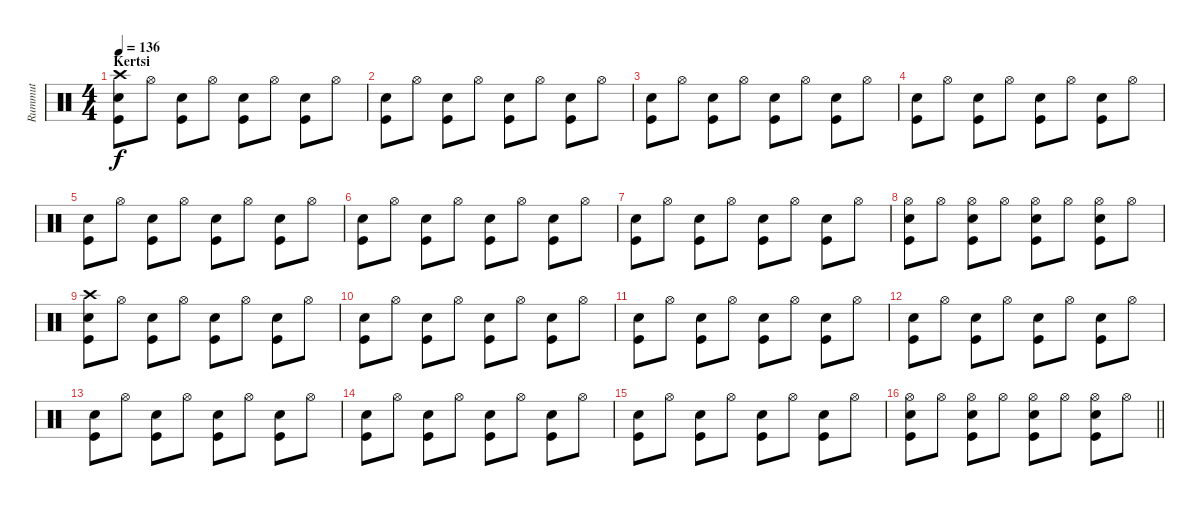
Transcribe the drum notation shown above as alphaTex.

\track ("Rummut" "Rummut") {instrument percussion}
\staff {score}
\articulation defaults
\ts (4 4)
\section ("" "Kertsi")
\tempo 136
\clef neutral
\ks c
("Crash high (hit)" "Electric Snare (hit)" "Kick (hit)").8{dy f} "Hi-Hat (open)".8 ("Electric Snare (hit)" "Kick (hit)").8 "Hi-Hat (open)".8 ("Electric Snare (hit)" "Kick (hit)").8 "Hi-Hat (open)".8 ("Electric Snare (hit)" "Kick (hit)").8 "Hi-Hat (open)".8 |
("Electric Snare (hit)" "Kick (hit)").8 "Hi-Hat (open)".8 ("Electric Snare (hit)" "Kick (hit)").8 "Hi-Hat (open)".8 ("Electric Snare (hit)" "Kick (hit)").8 "Hi-Hat (open)".8 ("Electric Snare (hit)" "Kick (hit)").8 "Hi-Hat (open)".8 |
("Electric Snare (hit)" "Kick (hit)").8 "Hi-Hat (open)".8 ("Electric Snare (hit)" "Kick (hit)").8 "Hi-Hat (open)".8 ("Electric Snare (hit)" "Kick (hit)").8 "Hi-Hat (open)".8 ("Electric Snare (hit)" "Kick (hit)").8 "Hi-Hat (open)".8 |
("Electric Snare (hit)" "Kick (hit)").8 "Hi-Hat (open)".8 ("Electric Snare (hit)" "Kick (hit)").8 "Hi-Hat (open)".8 ("Electric Snare (hit)" "Kick (hit)").8 "Hi-Hat (open)".8 ("Electric Snare (hit)" "Kick (hit)").8 "Hi-Hat (open)".8 |
("Electric Snare (hit)" "Kick (hit)").8 "Hi-Hat (open)".8 ("Electric Snare (hit)" "Kick (hit)").8 "Hi-Hat (open)".8 ("Electric Snare (hit)" "Kick (hit)").8 "Hi-Hat (open)".8 ("Electric Snare (hit)" "Kick (hit)").8 "Hi-Hat (open)".8 |
("Electric Snare (hit)" "Kick (hit)").8 "Hi-Hat (open)".8 ("Electric Snare (hit)" "Kick (hit)").8 "Hi-Hat (open)".8 ("Electric Snare (hit)" "Kick (hit)").8 "Hi-Hat (open)".8 ("Electric Snare (hit)" "Kick (hit)").8 "Hi-Hat (open)".8 |
("Electric Snare (hit)" "Kick (hit)").8 "Hi-Hat (open)".8 ("Electric Snare (hit)" "Kick (hit)").8 "Hi-Hat (open)".8 ("Electric Snare (hit)" "Kick (hit)").8 "Hi-Hat (open)".8 ("Electric Snare (hit)" "Kick (hit)").8 "Hi-Hat (open)".8 |
("Hi-Hat (open)" "Electric Snare (hit)" "Kick (hit)").8 "Hi-Hat (open)".8 ("Hi-Hat (open)" "Electric Snare (hit)" "Kick (hit)").8 "Hi-Hat (open)".8 ("Hi-Hat (open)" "Electric Snare (hit)" "Kick (hit)").8 "Hi-Hat (open)".8 ("Hi-Hat (open)" "Electric Snare (hit)" "Kick (hit)").8 "Hi-Hat (open)".8 |
("Crash high (hit)" "Electric Snare (hit)" "Kick (hit)").8 "Hi-Hat (open)".8 ("Electric Snare (hit)" "Kick (hit)").8 "Hi-Hat (open)".8 ("Electric Snare (hit)" "Kick (hit)").8 "Hi-Hat (open)".8 ("Electric Snare (hit)" "Kick (hit)").8 "Hi-Hat (open)".8 |
("Electric Snare (hit)" "Kick (hit)").8 "Hi-Hat (open)".8 ("Electric Snare (hit)" "Kick (hit)").8 "Hi-Hat (open)".8 ("Electric Snare (hit)" "Kick (hit)").8 "Hi-Hat (open)".8 ("Electric Snare (hit)" "Kick (hit)").8 "Hi-Hat (open)".8 |
("Electric Snare (hit)" "Kick (hit)").8 "Hi-Hat (open)".8 ("Electric Snare (hit)" "Kick (hit)").8 "Hi-Hat (open)".8 ("Electric Snare (hit)" "Kick (hit)").8 "Hi-Hat (open)".8 ("Electric Snare (hit)" "Kick (hit)").8 "Hi-Hat (open)".8 |
("Electric Snare (hit)" "Kick (hit)").8 "Hi-Hat (open)".8 ("Electric Snare (hit)" "Kick (hit)").8 "Hi-Hat (open)".8 ("Electric Snare (hit)" "Kick (hit)").8 "Hi-Hat (open)".8 ("Electric Snare (hit)" "Kick (hit)").8 "Hi-Hat (open)".8 |
("Electric Snare (hit)" "Kick (hit)").8 "Hi-Hat (open)".8 ("Electric Snare (hit)" "Kick (hit)").8 "Hi-Hat (open)".8 ("Electric Snare (hit)" "Kick (hit)").8 "Hi-Hat (open)".8 ("Electric Snare (hit)" "Kick (hit)").8 "Hi-Hat (open)".8 |
("Electric Snare (hit)" "Kick (hit)").8 "Hi-Hat (open)".8 ("Electric Snare (hit)" "Kick (hit)").8 "Hi-Hat (open)".8 ("Electric Snare (hit)" "Kick (hit)").8 "Hi-Hat (open)".8 ("Electric Snare (hit)" "Kick (hit)").8 "Hi-Hat (open)".8 |
("Electric Snare (hit)" "Kick (hit)").8 "Hi-Hat (open)".8 ("Electric Snare (hit)" "Kick (hit)").8 "Hi-Hat (open)".8 ("Electric Snare (hit)" "Kick (hit)").8 "Hi-Hat (open)".8 ("Electric Snare (hit)" "Kick (hit)").8 "Hi-Hat (open)".8 |
\barLineRight lightlight
("Hi-Hat (open)" "Electric Snare (hit)" "Kick (hit)").8 "Hi-Hat (open)".8 ("Hi-Hat (open)" "Electric Snare (hit)" "Kick (hit)").8 "Hi-Hat (open)".8 ("Hi-Hat (open)" "Electric Snare (hit)" "Kick (hit)").8 "Hi-Hat (open)".8 ("Hi-Hat (open)" "Electric Snare (hit)" "Kick (hit)").8 "Hi-Hat (open)".8
